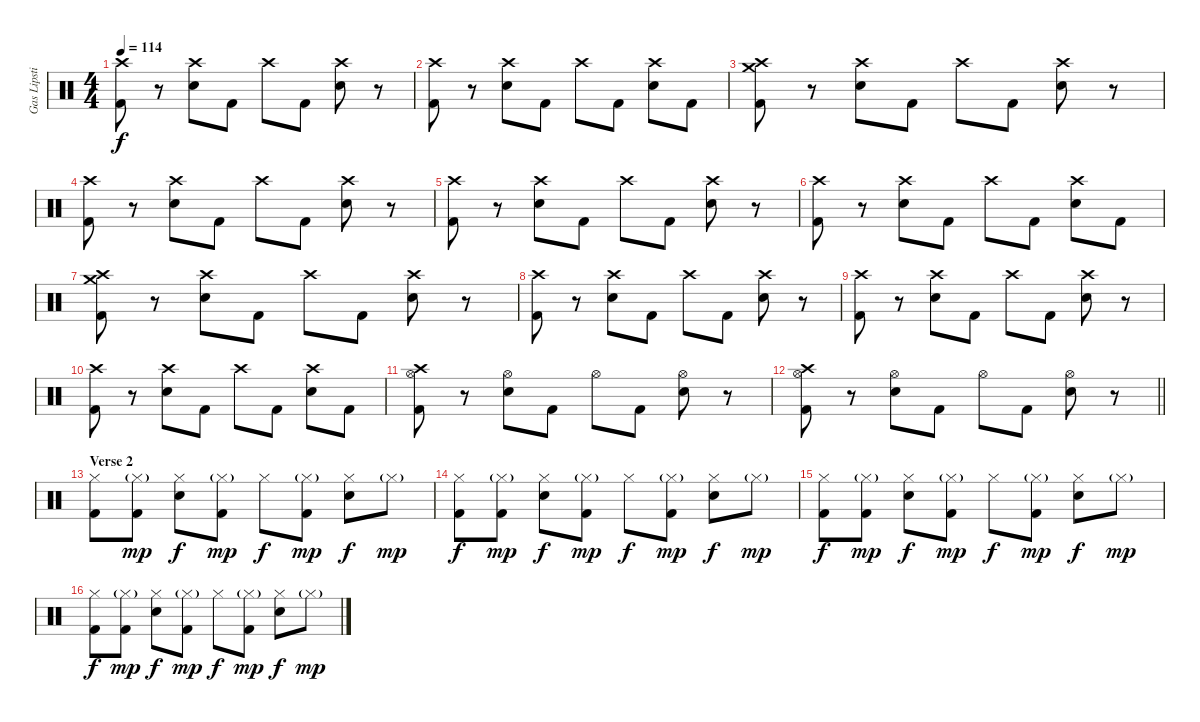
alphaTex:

\track ("Gas Lipstick (Drums)" "Gas Lipsti") {instrument percussion}
\staff {score}
\articulation defaults
\ts (4 4)
\tempo 114
\clef neutral
\ks c
("Crash high (hit)" "Kick (hit) 2").8{dy f} r.8 ("Crash high (hit)" "Snare (hit) 2").8 "Kick (hit) 2".8 "Crash high (hit)".8 "Kick (hit) 2".8 ("Crash high (hit)" "Snare (hit) 2").8 r.8 |
("Crash high (hit)" "Kick (hit) 2").8 r.8 ("Crash high (hit)" "Snare (hit) 2").8 "Kick (hit) 2".8 "Crash high (hit)".8 "Kick (hit) 2".8 ("Crash high (hit)" "Snare (hit) 2").8 "Kick (hit) 2".8 |
("Crash medium (hit)" "Crash high (hit)" "Kick (hit) 2").8 r.8 ("Crash high (hit)" "Snare (hit) 2").8 "Kick (hit) 2".8 "Crash high (hit)".8 "Kick (hit) 2".8 ("Crash high (hit)" "Snare (hit) 2").8 r.8 |
("Crash high (hit)" "Kick (hit) 2").8 r.8 ("Crash high (hit)" "Snare (hit) 2").8 "Kick (hit) 2".8 "Crash high (hit)".8 "Kick (hit) 2".8 ("Crash high (hit)" "Snare (hit) 2").8 r.8 |
("Crash high (hit)" "Kick (hit) 2").8 r.8 ("Crash high (hit)" "Snare (hit) 2").8 "Kick (hit) 2".8 "Crash high (hit)".8 "Kick (hit) 2".8 ("Crash high (hit)" "Snare (hit) 2").8 r.8 |
("Crash high (hit)" "Kick (hit) 2").8 r.8 ("Crash high (hit)" "Snare (hit) 2").8 "Kick (hit) 2".8 "Crash high (hit)".8 "Kick (hit) 2".8 ("Crash high (hit)" "Snare (hit) 2").8 "Kick (hit) 2".8 |
("Crash medium (hit)" "Crash high (hit)" "Kick (hit) 2").8 r.8 ("Crash high (hit)" "Snare (hit) 2").8 "Kick (hit) 2".8 "Crash high (hit)".8 "Kick (hit) 2".8 ("Crash high (hit)" "Snare (hit) 2").8 r.8 |
("Crash high (hit)" "Kick (hit) 2").8 r.8 ("Crash high (hit)" "Snare (hit) 2").8 "Kick (hit) 2".8 "Crash high (hit)".8 "Kick (hit) 2".8 ("Crash high (hit)" "Snare (hit) 2").8 r.8 |
("Crash high (hit)" "Kick (hit) 2").8 r.8 ("Crash high (hit)" "Snare (hit) 2").8 "Kick (hit) 2".8 "Crash high (hit)".8 "Kick (hit) 2".8 ("Crash high (hit)" "Snare (hit) 2").8 r.8 |
("Crash high (hit)" "Kick (hit) 2").8 r.8 ("Crash high (hit)" "Snare (hit) 2").8 "Kick (hit) 2".8 "Crash high (hit)".8 "Kick (hit) 2".8 ("Crash high (hit)" "Snare (hit) 2").8 "Kick (hit) 2".8 |
("Crash high (hit)" "Hi-Hat (open)" "Kick (hit) 2").8 r.8 ("Hi-Hat (open)" "Snare (hit) 2").8 "Kick (hit) 2".8 "Hi-Hat (open)".8 "Kick (hit) 2".8 ("Hi-Hat (open)" "Snare (hit) 2").8 r.8 |
\barLineRight lightlight
("Crash high (hit)" "Hi-Hat (open)" "Kick (hit) 2").8 r.8 ("Hi-Hat (open)" "Snare (hit) 2").8 "Kick (hit) 2".8 "Hi-Hat (open)".8 "Kick (hit) 2".8 ("Hi-Hat (open)" "Snare (hit) 2").8 r.8 |
\section ("" "Verse 2")
("Hi-Hat (closed)" "Kick (hit) 2").8 ("Hi-Hat (closed)"{g} "Kick (hit) 2").8{dy mp} ("Hi-Hat (closed)" "Snare (hit) 2").8{dy f} ("Hi-Hat (closed)"{g} "Kick (hit) 2").8{dy mp} "Hi-Hat (closed)".8{dy f} ("Hi-Hat (closed)"{g} "Kick (hit) 2").8{dy mp} ("Hi-Hat (closed)" "Snare (hit) 2").8{dy f} "Hi-Hat (closed)"{g}.8{dy mp} |
("Hi-Hat (closed)" "Kick (hit) 2").8{dy f} ("Hi-Hat (closed)"{g} "Kick (hit) 2").8{dy mp} ("Hi-Hat (closed)" "Snare (hit) 2").8{dy f} ("Hi-Hat (closed)"{g} "Kick (hit) 2").8{dy mp} "Hi-Hat (closed)".8{dy f} ("Hi-Hat (closed)"{g} "Kick (hit) 2").8{dy mp} ("Hi-Hat (closed)" "Snare (hit) 2").8{dy f} "Hi-Hat (closed)"{g}.8{dy mp} |
("Hi-Hat (closed)" "Kick (hit) 2").8{dy f} ("Hi-Hat (closed)"{g} "Kick (hit) 2").8{dy mp} ("Hi-Hat (closed)" "Snare (hit) 2").8{dy f} ("Hi-Hat (closed)"{g} "Kick (hit) 2").8{dy mp} "Hi-Hat (closed)".8{dy f} ("Hi-Hat (closed)"{g} "Kick (hit) 2").8{dy mp} ("Hi-Hat (closed)" "Snare (hit) 2").8{dy f} "Hi-Hat (closed)"{g}.8{dy mp} |
("Hi-Hat (closed)" "Kick (hit) 2").8{dy f} ("Hi-Hat (closed)"{g} "Kick (hit) 2").8{dy mp} ("Hi-Hat (closed)" "Snare (hit) 2").8{dy f} ("Hi-Hat (closed)"{g} "Kick (hit) 2").8{dy mp} "Hi-Hat (closed)".8{dy f} ("Hi-Hat (closed)"{g} "Kick (hit) 2").8{dy mp} ("Hi-Hat (closed)" "Snare (hit) 2").8{dy f} "Hi-Hat (closed)"{g}.8{dy mp}
